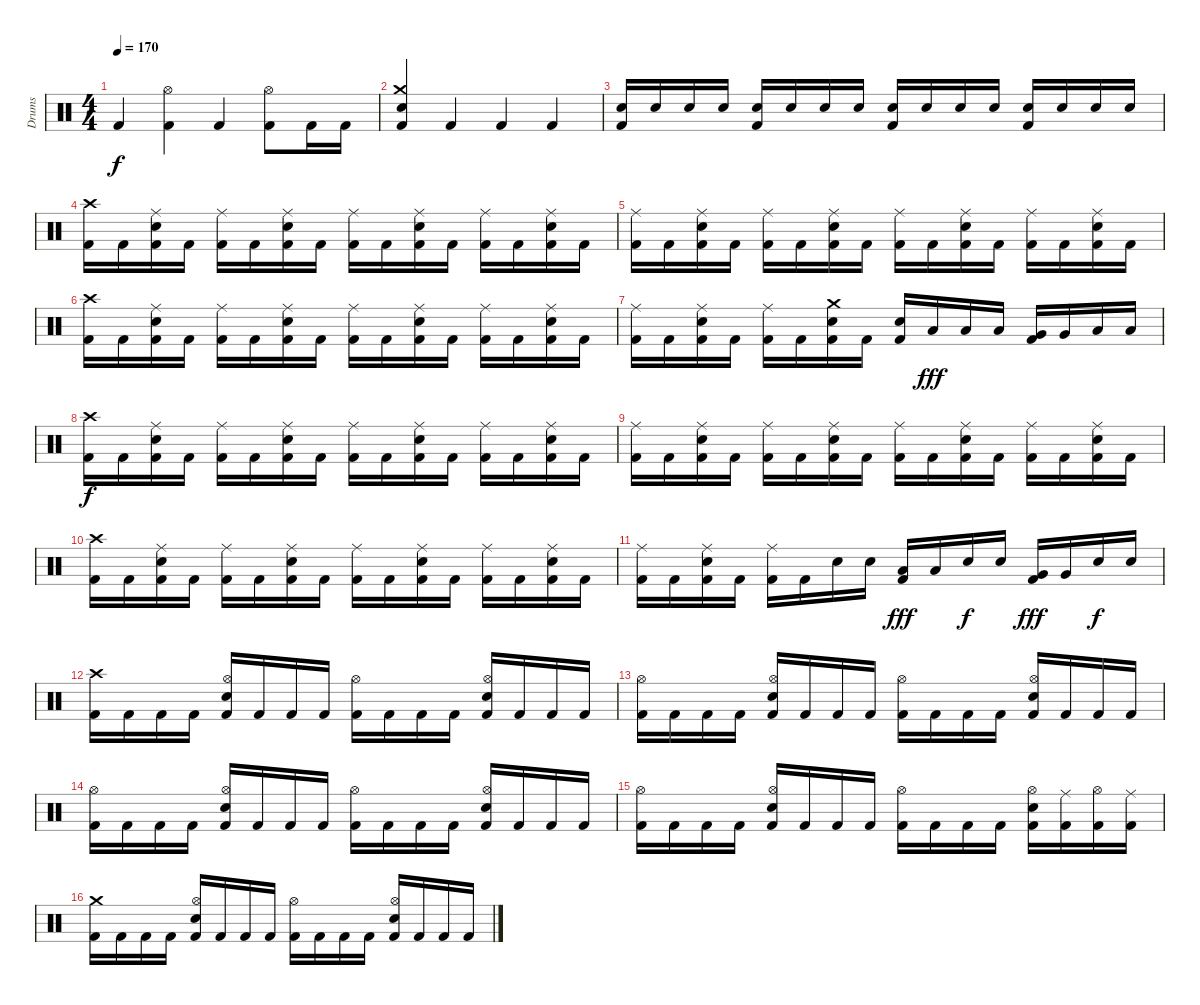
\track ("Drums" "Drums") {instrument percussion}
\staff {score}
\articulation defaults
\ts (4 4)
\tempo 170
\clef neutral
\ks c "Kick (hit) 2".4{dy f}
("Hi-Hat (open)" "Kick (hit) 2").4 "Kick (hit) 2".4 ("Hi-Hat (open)" "Kick (hit) 2").8 "Kick (hit) 2".16 "Kick (hit) 2".16 |
("Crash medium (hit)" "Electric Snare (hit)" "Kick (hit) 2").4 "Kick (hit) 2".4 "Kick (hit) 2".4 "Kick (hit) 2".4 |
("Electric Snare (hit)" "Kick (hit) 2").16 "Electric Snare (hit)".16 "Electric Snare (hit)".16 "Electric Snare (hit)".16 ("Electric Snare (hit)" "Kick (hit) 2").16 "Electric Snare (hit)".16 "Electric Snare (hit)".16 "Electric Snare (hit)".16 ("Electric Snare (hit)" "Kick (hit) 2").16 "Electric Snare (hit)".16 "Electric Snare (hit)".16 "Electric Snare (hit)".16 ("Electric Snare (hit)" "Kick (hit) 2").16 "Electric Snare (hit)".16 "Electric Snare (hit)".16 "Electric Snare (hit)".16 |
("Crash high (hit)" "Kick (hit) 2").16 "Kick (hit) 2".16 ("Ride (middle)" "Electric Snare (hit)" "Kick (hit) 2").16 "Kick (hit) 2".16 ("Ride (middle)" "Kick (hit) 2").16 "Kick (hit) 2".16 ("Ride (middle)" "Electric Snare (hit)" "Kick (hit) 2").16 "Kick (hit) 2".16 ("Ride (middle)" "Kick (hit) 2").16 "Kick (hit) 2".16 ("Ride (middle)" "Electric Snare (hit)" "Kick (hit) 2").16 "Kick (hit) 2".16 ("Ride (middle)" "Kick (hit) 2").16 "Kick (hit) 2".16 ("Ride (middle)" "Electric Snare (hit)" "Kick (hit) 2").16 "Kick (hit) 2".16 |
("Ride (middle)" "Kick (hit) 2").16 "Kick (hit) 2".16 ("Ride (middle)" "Electric Snare (hit)" "Kick (hit) 2").16 "Kick (hit) 2".16 ("Ride (middle)" "Kick (hit) 2").16 "Kick (hit) 2".16 ("Ride (middle)" "Electric Snare (hit)" "Kick (hit) 2").16 "Kick (hit) 2".16 ("Ride (middle)" "Kick (hit) 2").16 "Kick (hit) 2".16 ("Ride (middle)" "Electric Snare (hit)" "Kick (hit) 2").16 "Kick (hit) 2".16 ("Ride (middle)" "Kick (hit) 2").16 "Kick (hit) 2".16 ("Ride (middle)" "Electric Snare (hit)" "Kick (hit) 2").16 "Kick (hit) 2".16 |
("Crash high (hit)" "Kick (hit) 2").16 "Kick (hit) 2".16 ("Ride (middle)" "Electric Snare (hit)" "Kick (hit) 2").16 "Kick (hit) 2".16 ("Ride (middle)" "Kick (hit) 2").16 "Kick (hit) 2".16 ("Ride (middle)" "Electric Snare (hit)" "Kick (hit) 2").16 "Kick (hit) 2".16 ("Ride (middle)" "Kick (hit) 2").16 "Kick (hit) 2".16 ("Ride (middle)" "Electric Snare (hit)" "Kick (hit) 2").16 "Kick (hit) 2".16 ("Ride (middle)" "Kick (hit) 2").16 "Kick (hit) 2".16 ("Ride (middle)" "Electric Snare (hit)" "Kick (hit) 2").16 "Kick (hit) 2".16 |
("Ride (middle)" "Kick (hit) 2").16 "Kick (hit) 2".16 ("Ride (middle)" "Electric Snare (hit)" "Kick (hit) 2").16 "Kick (hit) 2".16 ("Ride (middle)" "Kick (hit) 2").16 "Kick (hit) 2".16 ("Crash medium (hit)" "Electric Snare (hit)" "Kick (hit) 2").16 "Kick (hit) 2".16 ("Electric Snare (hit)" "Kick (hit) 2").16 "Low Tom (hit)".16{dy fff} "Low Tom (hit)".16 "Low Tom (hit)".16 ("Very Low Tom (hit)" "Kick (hit) 2").16 "Very Low Tom (hit)".16 "Low Floor Tom (hit)".16 "Low Floor Tom (hit)".16 |
("Crash high (hit)" "Kick (hit) 2").16{dy f} "Kick (hit) 2".16 ("Ride (middle)" "Electric Snare (hit)" "Kick (hit) 2").16 "Kick (hit) 2".16 ("Ride (middle)" "Kick (hit) 2").16 "Kick (hit) 2".16 ("Ride (middle)" "Electric Snare (hit)" "Kick (hit) 2").16 "Kick (hit) 2".16 ("Ride (middle)" "Kick (hit) 2").16 "Kick (hit) 2".16 ("Ride (middle)" "Electric Snare (hit)" "Kick (hit) 2").16 "Kick (hit) 2".16 ("Ride (middle)" "Kick (hit) 2").16 "Kick (hit) 2".16 ("Ride (middle)" "Electric Snare (hit)" "Kick (hit) 2").16 "Kick (hit) 2".16 |
("Ride (middle)" "Kick (hit) 2").16 "Kick (hit) 2".16 ("Ride (middle)" "Electric Snare (hit)" "Kick (hit) 2").16 "Kick (hit) 2".16 ("Ride (middle)" "Kick (hit) 2").16 "Kick (hit) 2".16 ("Ride (middle)" "Electric Snare (hit)" "Kick (hit) 2").16 "Kick (hit) 2".16 ("Ride (middle)" "Kick (hit) 2").16 "Kick (hit) 2".16 ("Ride (middle)" "Electric Snare (hit)" "Kick (hit) 2").16 "Kick (hit) 2".16 ("Ride (middle)" "Kick (hit) 2").16 "Kick (hit) 2".16 ("Ride (middle)" "Electric Snare (hit)" "Kick (hit) 2").16 "Kick (hit) 2".16 |
("Crash high (hit)" "Kick (hit) 2").16 "Kick (hit) 2".16 ("Ride (middle)" "Electric Snare (hit)" "Kick (hit) 2").16 "Kick (hit) 2".16 ("Ride (middle)" "Kick (hit) 2").16 "Kick (hit) 2".16 ("Ride (middle)" "Electric Snare (hit)" "Kick (hit) 2").16 "Kick (hit) 2".16 ("Ride (middle)" "Kick (hit) 2").16 "Kick (hit) 2".16 ("Ride (middle)" "Electric Snare (hit)" "Kick (hit) 2").16 "Kick (hit) 2".16 ("Ride (middle)" "Kick (hit) 2").16 "Kick (hit) 2".16 ("Ride (middle)" "Electric Snare (hit)" "Kick (hit) 2").16 "Kick (hit) 2".16 |
("Ride (middle)" "Kick (hit) 2").16 "Kick (hit) 2".16 ("Ride (middle)" "Electric Snare (hit)" "Kick (hit) 2").16 "Kick (hit) 2".16 ("Ride (middle)" "Kick (hit) 2").16 "Kick (hit) 2".16 "Electric Snare (hit)".16 "Electric Snare (hit)".16 ("Low Tom (hit)" "Kick (hit) 2").16{dy fff} "Low Tom (hit)".16 "Electric Snare (hit)".16{dy f} "Electric Snare (hit)".16 ("Very Low Tom (hit)" "Kick (hit) 2").16{dy fff} "Very Low Tom (hit)".16 "Electric Snare (hit)".16{dy f} "Electric Snare (hit)".16 |
("Crash high (hit)" "Kick (hit) 2").16 "Kick (hit) 2".16 "Kick (hit) 2".16 "Kick (hit) 2".16 ("Hi-Hat (open)" "Electric Snare (hit)" "Kick (hit) 2").16 "Kick (hit) 2".16 "Kick (hit) 2".16 "Kick (hit) 2".16 ("Hi-Hat (open)" "Kick (hit) 2").16 "Kick (hit) 2".16 "Kick (hit) 2".16 "Kick (hit) 2".16 ("Hi-Hat (open)" "Electric Snare (hit)" "Kick (hit) 2").16 "Kick (hit) 2".16 "Kick (hit) 2".16 "Kick (hit) 2".16 |
("Hi-Hat (open)" "Kick (hit) 2").16 "Kick (hit) 2".16 "Kick (hit) 2".16 "Kick (hit) 2".16 ("Hi-Hat (open)" "Electric Snare (hit)" "Kick (hit) 2").16 "Kick (hit) 2".16 "Kick (hit) 2".16 "Kick (hit) 2".16 ("Hi-Hat (open)" "Kick (hit) 2").16 "Kick (hit) 2".16 "Kick (hit) 2".16 "Kick (hit) 2".16 ("Hi-Hat (open)" "Electric Snare (hit)" "Kick (hit) 2").16 "Kick (hit) 2".16 "Kick (hit) 2".16 "Kick (hit) 2".16 |
("Hi-Hat (open)" "Kick (hit) 2").16 "Kick (hit) 2".16 "Kick (hit) 2".16 "Kick (hit) 2".16 ("Hi-Hat (open)" "Electric Snare (hit)" "Kick (hit) 2").16 "Kick (hit) 2".16 "Kick (hit) 2".16 "Kick (hit) 2".16 ("Hi-Hat (open)" "Kick (hit) 2").16 "Kick (hit) 2".16 "Kick (hit) 2".16 "Kick (hit) 2".16 ("Hi-Hat (open)" "Electric Snare (hit)" "Kick (hit) 2").16 "Kick (hit) 2".16 "Kick (hit) 2".16 "Kick (hit) 2".16 |
("Hi-Hat (open)" "Kick (hit) 2").16 "Kick (hit) 2".16 "Kick (hit) 2".16 "Kick (hit) 2".16 ("Hi-Hat (open)" "Electric Snare (hit)" "Kick (hit) 2").16 "Kick (hit) 2".16 "Kick (hit) 2".16 "Kick (hit) 2".16 ("Hi-Hat (open)" "Kick (hit) 2").16 "Kick (hit) 2".16 "Kick (hit) 2".16 "Kick (hit) 2".16 ("Hi-Hat (open)" "Electric Snare (hit)" "Kick (hit) 2").16 ("Ride (middle)" "Kick (hit) 2").16 ("Hi-Hat (open)" "Kick (hit) 2").16 ("Ride (middle)" "Kick (hit) 2").16 |
("Crash medium (hit)" "Kick (hit) 2").16 "Kick (hit) 2".16 "Kick (hit) 2".16 "Kick (hit) 2".16 ("Hi-Hat (open)" "Electric Snare (hit)" "Kick (hit) 2").16 "Kick (hit) 2".16 "Kick (hit) 2".16 "Kick (hit) 2".16 ("Hi-Hat (open)" "Kick (hit) 2").16 "Kick (hit) 2".16 "Kick (hit) 2".16 "Kick (hit) 2".16 ("Hi-Hat (open)" "Electric Snare (hit)" "Kick (hit) 2").16 "Kick (hit) 2".16 "Kick (hit) 2".16 "Kick (hit) 2".16
